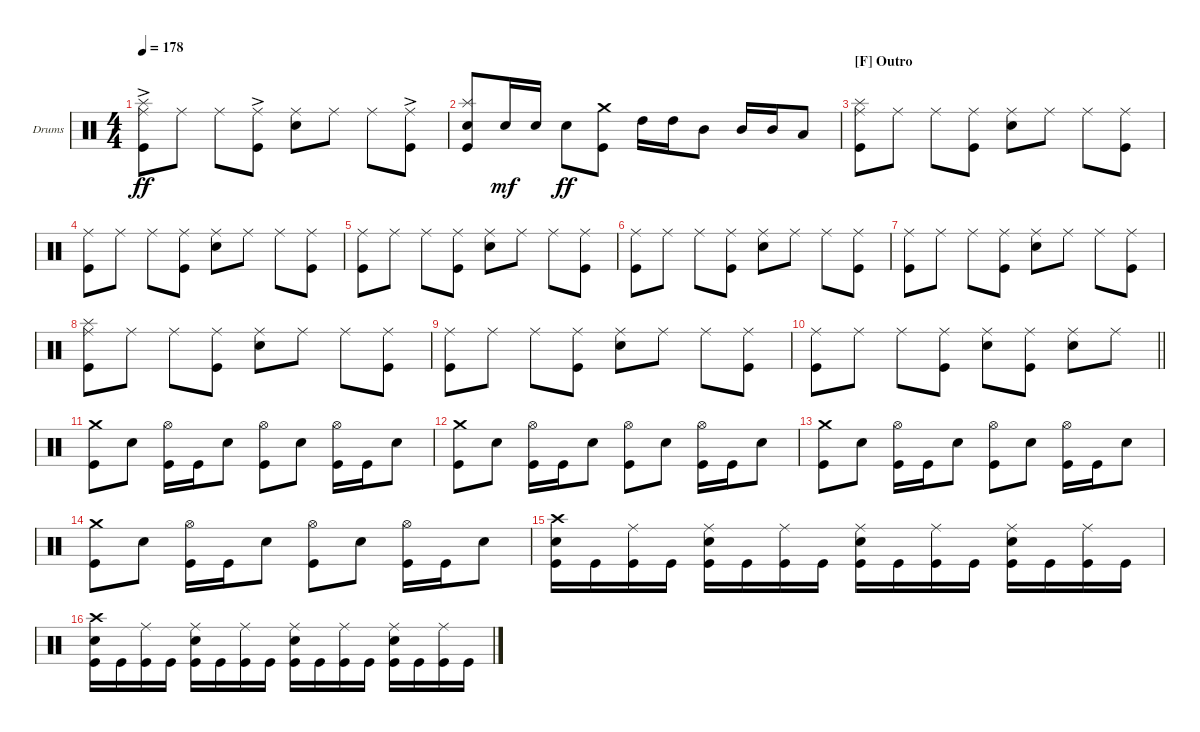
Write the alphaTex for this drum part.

\bracketExtendMode groupsimilarinstruments
\firstSystemTrackNameOrientation horizontal
\otherSystemsTrackNameOrientation horizontal
\track ("Drumkit" "Drums") {instrument percussion}
\staff {score}
\articulation defaults
\ts (4 4)
\tempo 178
\clef neutral
\scale
0.973518
\ks c
("Kick (hit)"{ac} "Ride (middle)" "Splash (hit)").8{dy ff} "Ride (middle)".8 "Ride (middle)".8 ("Ride (middle)" "Kick (hit)"{ac}).8 ("Ride (middle)" "Snare (hit) 2").8 "Ride (middle)".8 "Ride (middle)".8 ("Ride (middle)" "Kick (hit)"{ac}).8 |
\scale
1.02648 ("Kick (hit)" "Snare (hit) 2" "Splash (hit)").8 "Snare (hit) 2".16{dy mf} "Snare (hit) 2".16 "Snare (hit) 2".8{dy ff} ("Kick (hit)" "Crash medium (hit)").8 "High Tom (hit)".16 "High Tom (hit)".16 "Mid Tom (hit)".8 "Mid Tom (hit)".16 "Mid Tom (hit)".16 "Low Tom (hit)".8 |
\section ("F" "Outro")
\scale
0.973518 ("Kick (hit)" "Ride (middle)" "Splash (hit)").8 "Ride (middle)".8 "Ride (middle)".8 ("Ride (middle)" "Kick (hit)").8 ("Ride (middle)" "Snare (hit) 2").8 "Ride (middle)".8 "Ride (middle)".8 ("Ride (middle)" "Kick (hit)").8 |
\scale
1.05675 ("Kick (hit)" "Ride (middle)").8 "Ride (middle)".8 "Ride (middle)".8 ("Ride (middle)" "Kick (hit)").8 ("Ride (middle)" "Snare (hit) 2").8 "Ride (middle)".8 "Ride (middle)".8 ("Ride (middle)" "Kick (hit)").8 |
\scale
0.943253 ("Kick (hit)" "Ride (middle)").8 "Ride (middle)".8 "Ride (middle)".8 ("Ride (middle)" "Kick (hit)").8 ("Ride (middle)" "Snare (hit) 2").8 "Ride (middle)".8 "Ride (middle)".8 ("Ride (middle)" "Kick (hit)").8 |
\scale
1.02648 ("Kick (hit)" "Ride (middle)").8 "Ride (middle)".8 "Ride (middle)".8 ("Ride (middle)" "Kick (hit)").8 ("Ride (middle)" "Snare (hit) 2").8 "Ride (middle)".8 "Ride (middle)".8 ("Ride (middle)" "Kick (hit)").8 |
\scale
0.973518 ("Kick (hit)" "Ride (middle)").8 "Ride (middle)".8 "Ride (middle)".8 ("Ride (middle)" "Kick (hit)").8 ("Ride (middle)" "Snare (hit) 2").8 "Ride (middle)".8 "Ride (middle)".8 ("Ride (middle)" "Kick (hit)").8 |
\scale
1.02648 ("Kick (hit)" "Ride (middle)" "Splash (hit)").8 "Ride (middle)".8 "Ride (middle)".8 ("Ride (middle)" "Kick (hit)").8 ("Ride (middle)" "Snare (hit) 2").8 "Ride (middle)".8 "Ride (middle)".8 ("Ride (middle)" "Kick (hit)").8 |
\scale
0.973518 ("Kick (hit)" "Ride (middle)").8 "Ride (middle)".8 "Ride (middle)".8 ("Ride (middle)" "Kick (hit)").8 ("Ride (middle)" "Snare (hit) 2").8 "Ride (middle)".8 "Ride (middle)".8 ("Ride (middle)" "Kick (hit)").8 |
\scale
1.02648
\barLineRight lightlight
("Kick (hit)" "Ride (middle)").8 "Ride (middle)".8 "Ride (middle)".8 ("Ride (middle)" "Kick (hit)").8 ("Ride (middle)" "Snare (hit) 2").8 ("Ride (middle)" "Kick (hit)").8 ("Ride (middle)" "Snare (hit) 2").8 "Ride (middle)".8 |
\scale
0.973518 ("Kick (hit)" "Crash medium (hit)").8 "Snare (hit) 2".8 ("Kick (hit)" "Hi-Hat (open)").16 "Kick (hit)".16 "Snare (hit) 2".8 ("Kick (hit)" "Hi-Hat (open)").8 "Snare (hit) 2".8 ("Kick (hit)" "Hi-Hat (open)").16 "Kick (hit)".16 "Snare (hit) 2".8 |
\scale
1.02648 ("Kick (hit)" "Crash medium (hit)").8 "Snare (hit) 2".8 ("Kick (hit)" "Hi-Hat (open)").16 "Kick (hit)".16 "Snare (hit) 2".8 ("Kick (hit)" "Hi-Hat (open)").8 "Snare (hit) 2".8 ("Kick (hit)" "Hi-Hat (open)").16 "Kick (hit)".16 "Snare (hit) 2".8 |
\scale
0.973518 ("Kick (hit)" "Crash medium (hit)").8 "Snare (hit) 2".8 ("Kick (hit)" "Hi-Hat (open)").16 "Kick (hit)".16 "Snare (hit) 2".8 ("Kick (hit)" "Hi-Hat (open)").8 "Snare (hit) 2".8 ("Kick (hit)" "Hi-Hat (open)").16 "Kick (hit)".16 "Snare (hit) 2".8 |
\scale
1.02648 ("Kick (hit)" "Crash medium (hit)").8 "Snare (hit) 2".8 ("Kick (hit)" "Hi-Hat (open)").16 "Kick (hit)".16 "Snare (hit) 2".8 ("Kick (hit)" "Hi-Hat (open)").8 "Snare (hit) 2".8 ("Kick (hit)" "Hi-Hat (open)").16 "Kick (hit)".16 "Snare (hit) 2".8 |
\scale
0.973518 ("Kick (hit)" "Snare (hit) 2" "Crash high (hit)").16 "Kick (hit)".16 ("Kick (hit)" "Ride (middle)").16 "Kick (hit)".16 ("Kick (hit)" "Snare (hit) 2" "Ride (middle)").16 "Kick (hit)".16 ("Kick (hit)" "Ride (middle)").16 "Kick (hit)".16 ("Kick (hit)" "Snare (hit) 2" "Ride (middle)").16 "Kick (hit)".16 ("Kick (hit)" "Ride (middle)").16 "Kick (hit)".16 ("Kick (hit)" "Snare (hit) 2" "Ride (middle)").16 "Kick (hit)".16 ("Kick (hit)" "Ride (middle)").16 "Kick (hit)".16 |
\scale
1.02648 ("Kick (hit)" "Snare (hit) 2" "Crash high (hit)").16 "Kick (hit)".16 ("Kick (hit)" "Ride (middle)").16 "Kick (hit)".16 ("Kick (hit)" "Snare (hit) 2" "Ride (middle)").16 "Kick (hit)".16 ("Kick (hit)" "Ride (middle)").16 "Kick (hit)".16 ("Kick (hit)" "Snare (hit) 2" "Ride (middle)").16 "Kick (hit)".16 ("Kick (hit)" "Ride (middle)").16 "Kick (hit)".16 ("Kick (hit)" "Snare (hit) 2" "Ride (middle)").16 "Kick (hit)".16 ("Kick (hit)" "Ride (middle)").16 "Kick (hit)".16
